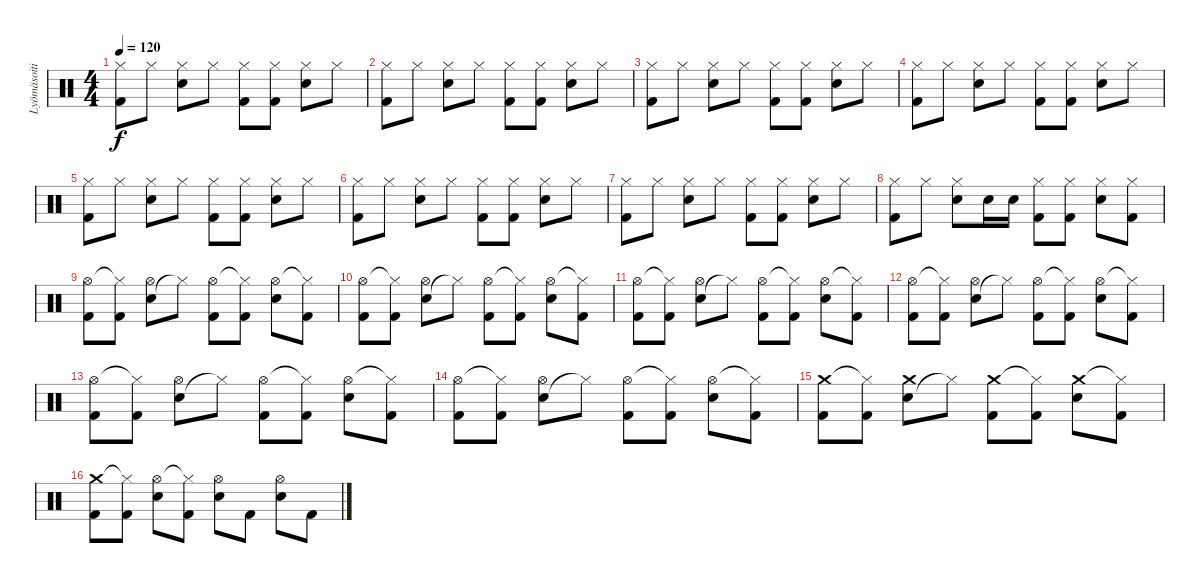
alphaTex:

\track ("Lyömäsoitin" "Lyömäsoiti") {instrument percussion}
\staff {score}
\articulation defaults
\ts (4 4)
\tempo 120
\clef neutral
\ks c
("Kick (hit) 2" "Hi-Hat (closed)").8{dy f} "Hi-Hat (closed)".8 ("Electric Snare (hit)" "Hi-Hat (closed)").8 "Hi-Hat (closed)".8 ("Kick (hit) 2" "Hi-Hat (closed)").8 ("Kick (hit) 2" "Hi-Hat (closed)").8 ("Electric Snare (hit)" "Hi-Hat (closed)").8 "Hi-Hat (closed)".8 |
("Kick (hit) 2" "Hi-Hat (closed)").8 "Hi-Hat (closed)".8 ("Electric Snare (hit)" "Hi-Hat (closed)").8 "Hi-Hat (closed)".8 ("Kick (hit) 2" "Hi-Hat (closed)").8 ("Kick (hit) 2" "Hi-Hat (closed)").8 ("Electric Snare (hit)" "Hi-Hat (closed)").8 "Hi-Hat (closed)".8 |
("Kick (hit) 2" "Hi-Hat (closed)").8 "Hi-Hat (closed)".8 ("Electric Snare (hit)" "Hi-Hat (closed)").8 "Hi-Hat (closed)".8 ("Kick (hit) 2" "Hi-Hat (closed)").8 ("Kick (hit) 2" "Hi-Hat (closed)").8 ("Electric Snare (hit)" "Hi-Hat (closed)").8 "Hi-Hat (closed)".8 |
("Kick (hit) 2" "Hi-Hat (closed)").8 "Hi-Hat (closed)".8 ("Electric Snare (hit)" "Hi-Hat (closed)").8 "Hi-Hat (closed)".8 ("Kick (hit) 2" "Hi-Hat (closed)").8 ("Kick (hit) 2" "Hi-Hat (closed)").8 ("Electric Snare (hit)" "Hi-Hat (closed)").8 "Hi-Hat (closed)".8 |
("Kick (hit) 2" "Hi-Hat (closed)").8 "Hi-Hat (closed)".8 ("Electric Snare (hit)" "Hi-Hat (closed)").8 "Hi-Hat (closed)".8 ("Kick (hit) 2" "Hi-Hat (closed)").8 ("Kick (hit) 2" "Hi-Hat (closed)").8 ("Electric Snare (hit)" "Hi-Hat (closed)").8 "Hi-Hat (closed)".8 |
("Kick (hit) 2" "Hi-Hat (closed)").8 "Hi-Hat (closed)".8 ("Electric Snare (hit)" "Hi-Hat (closed)").8 "Hi-Hat (closed)".8 ("Kick (hit) 2" "Hi-Hat (closed)").8 ("Kick (hit) 2" "Hi-Hat (closed)").8 ("Electric Snare (hit)" "Hi-Hat (closed)").8 "Hi-Hat (closed)".8 |
("Kick (hit) 2" "Hi-Hat (closed)").8 "Hi-Hat (closed)".8 ("Electric Snare (hit)" "Hi-Hat (closed)").8 "Hi-Hat (closed)".8 ("Kick (hit) 2" "Hi-Hat (closed)").8 ("Kick (hit) 2" "Hi-Hat (closed)").8 ("Electric Snare (hit)" "Hi-Hat (closed)").8 "Hi-Hat (closed)".8 |
("Kick (hit) 2" "Hi-Hat (closed)").8 "Hi-Hat (closed)".8 ("Electric Snare (hit)" "Hi-Hat (closed)").8 "Electric Snare (hit)".16 "Electric Snare (hit)".16 ("Kick (hit) 2" "Hi-Hat (closed)").8 ("Kick (hit) 2" "Hi-Hat (closed)").8 ("Electric Snare (hit)" "Hi-Hat (closed)").8 ("Kick (hit) 2" "Hi-Hat (closed)").8 |
("Kick (hit) 2" "Hi-Hat (open)").8 ("Kick (hit) 2" "Hi-Hat (closed)"{t}).8 ("Electric Snare (hit)" "Hi-Hat (open)").8 "Hi-Hat (closed)"{t}.8 ("Kick (hit) 2" "Hi-Hat (open)").8 ("Kick (hit) 2" "Hi-Hat (closed)"{t}).8 ("Electric Snare (hit)" "Hi-Hat (open)").8 ("Kick (hit) 2" "Hi-Hat (closed)"{t}).8 |
("Kick (hit) 2" "Hi-Hat (open)").8 ("Kick (hit) 2" "Hi-Hat (closed)"{t}).8 ("Electric Snare (hit)" "Hi-Hat (open)").8 "Hi-Hat (closed)"{t}.8 ("Kick (hit) 2" "Hi-Hat (open)").8 ("Kick (hit) 2" "Hi-Hat (closed)"{t}).8 ("Electric Snare (hit)" "Hi-Hat (open)").8 ("Kick (hit) 2" "Hi-Hat (closed)"{t}).8 |
("Kick (hit) 2" "Hi-Hat (open)").8 ("Kick (hit) 2" "Hi-Hat (closed)"{t}).8 ("Electric Snare (hit)" "Hi-Hat (open)").8 "Hi-Hat (closed)"{t}.8 ("Kick (hit) 2" "Hi-Hat (open)").8 ("Kick (hit) 2" "Hi-Hat (closed)"{t}).8 ("Electric Snare (hit)" "Hi-Hat (open)").8 ("Kick (hit) 2" "Hi-Hat (closed)"{t}).8 |
("Kick (hit) 2" "Hi-Hat (open)").8 ("Kick (hit) 2" "Hi-Hat (closed)"{t}).8 ("Electric Snare (hit)" "Hi-Hat (open)").8 "Hi-Hat (closed)"{t}.8 ("Kick (hit) 2" "Hi-Hat (open)").8 ("Kick (hit) 2" "Hi-Hat (closed)"{t}).8 ("Electric Snare (hit)" "Hi-Hat (open)").8 ("Kick (hit) 2" "Hi-Hat (closed)"{t}).8 |
("Kick (hit) 2" "Hi-Hat (open)").8 ("Kick (hit) 2" "Hi-Hat (closed)"{t}).8 ("Electric Snare (hit)" "Hi-Hat (open)").8 "Hi-Hat (closed)"{t}.8 ("Kick (hit) 2" "Hi-Hat (open)").8 ("Kick (hit) 2" "Hi-Hat (closed)"{t}).8 ("Electric Snare (hit)" "Hi-Hat (open)").8 ("Kick (hit) 2" "Hi-Hat (closed)"{t}).8 |
("Kick (hit) 2" "Hi-Hat (open)").8 ("Kick (hit) 2" "Hi-Hat (closed)"{t}).8 ("Electric Snare (hit)" "Hi-Hat (open)").8 "Hi-Hat (closed)"{t}.8 ("Kick (hit) 2" "Hi-Hat (open)").8 ("Kick (hit) 2" "Hi-Hat (closed)"{t}).8 ("Electric Snare (hit)" "Hi-Hat (open)").8 ("Kick (hit) 2" "Hi-Hat (closed)"{t}).8 |
("Kick (hit) 2" "Crash medium (hit)").8 ("Kick (hit) 2" "Hi-Hat (closed)"{t}).8 ("Electric Snare (hit)" "Crash medium (hit)").8 "Hi-Hat (closed)"{t}.8 ("Kick (hit) 2" "Crash medium (hit)").8 ("Kick (hit) 2" "Hi-Hat (closed)"{t}).8 ("Electric Snare (hit)" "Crash medium (hit)").8 ("Kick (hit) 2" "Hi-Hat (closed)"{t}).8 |
("Kick (hit) 2" "Crash medium (hit)").8 ("Kick (hit) 2" "Hi-Hat (closed)"{t}).8 ("Electric Snare (hit)" "Hi-Hat (open)").8 ("Kick (hit) 2" "Hi-Hat (closed)"{t}).8 ("Electric Snare (hit)" "Hi-Hat (open)").8 "Kick (hit) 2".8 ("Electric Snare (hit)" "Hi-Hat (open)").8 "Kick (hit) 2".8
